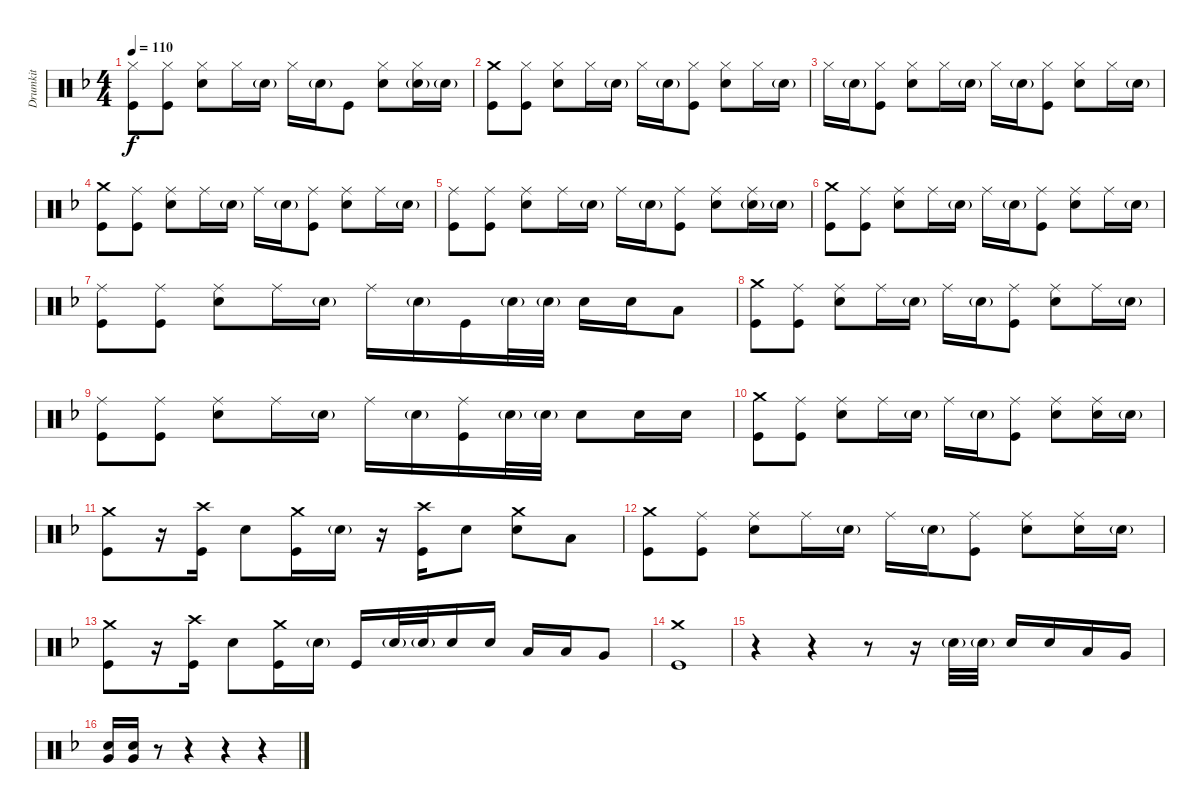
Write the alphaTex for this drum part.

\track ("Drumkit" "Drumkit") {instrument percussion}
\staff {score}
\articulation defaults
\ts (4 4)
\tempo 110
\clef neutral
\ks dminor
("Hi-Hat (closed)" "Kick (hit)").8{dy f} ("Hi-Hat (closed)" "Kick (hit)").8 ("Snare (hit) 2" "Hi-Hat (closed)").8 "Hi-Hat (closed)".16 "Snare (hit) 2"{g}.16 "Hi-Hat (closed)".16 "Snare (hit) 2"{g}.16 "Kick (hit)".8 ("Snare (hit) 2" "Hi-Hat (closed)").8 ("Hi-Hat (closed)" "Snare (hit) 2"{g}).16 "Snare (hit) 2"{g}.16 |
("Kick (hit)" "Crash medium (hit)").8 ("Hi-Hat (closed)" "Kick (hit)").8 ("Snare (hit) 2" "Hi-Hat (closed)").8 "Hi-Hat (closed)".16 "Snare (hit) 2"{g}.16 "Hi-Hat (closed)".16 "Snare (hit) 2"{g}.16 ("Kick (hit)" "Hi-Hat (closed)").8 ("Snare (hit) 2" "Hi-Hat (closed)").8 "Hi-Hat (closed)".16 "Snare (hit) 2"{g}.16 |
"Hi-Hat (closed)".16 "Snare (hit) 2"{g}.16 ("Kick (hit)" "Hi-Hat (closed)").8 ("Snare (hit) 2" "Hi-Hat (closed)").8 "Hi-Hat (closed)".16 "Snare (hit) 2"{g}.16 "Hi-Hat (closed)".16 "Snare (hit) 2"{g}.16 ("Kick (hit)" "Hi-Hat (closed)").8 ("Snare (hit) 2" "Hi-Hat (closed)").8 "Hi-Hat (closed)".16 "Snare (hit) 2"{g}.16 |
("Kick (hit)" "Crash medium (hit)").8 ("Kick (hit)" "Ride (middle)").8 ("Snare (hit) 2" "Ride (middle)").8 "Ride (middle)".16 "Snare (hit) 2"{g}.16 "Ride (middle)".16 "Snare (hit) 2"{g}.16 ("Kick (hit)" "Ride (middle)").8 ("Snare (hit) 2" "Ride (middle)").8 "Ride (middle)".16 "Snare (hit) 2"{g}.16 |
("Kick (hit)" "Ride (middle)").8 ("Kick (hit)" "Ride (middle)").8 ("Snare (hit) 2" "Ride (middle)").8 "Ride (middle)".16 "Snare (hit) 2"{g}.16 "Ride (middle)".16 "Snare (hit) 2"{g}.16 ("Kick (hit)" "Ride (middle)").8 ("Snare (hit) 2" "Ride (middle)").8 ("Snare (hit) 2"{g} "Ride (middle)").16 "Snare (hit) 2"{g}.16 |
("Kick (hit)" "Crash medium (hit)").8 ("Kick (hit)" "Ride (middle)").8 ("Snare (hit) 2" "Ride (middle)").8 "Ride (middle)".16 "Snare (hit) 2"{g}.16 "Ride (middle)".16 "Snare (hit) 2"{g}.16 ("Kick (hit)" "Ride (middle)").8 ("Snare (hit) 2" "Ride (middle)").8 "Ride (middle)".16 "Snare (hit) 2"{g}.16 |
("Kick (hit)" "Ride (middle)").8 ("Kick (hit)" "Ride (middle)").8 ("Snare (hit) 2" "Ride (middle)").8 "Ride (middle)".16 "Snare (hit) 2"{g}.16 "Ride (middle)".16 "Snare (hit) 2"{g}.16 "Kick (hit)".16 "Snare (hit) 2"{g}.32 "Snare (hit) 2"{g}.32 "Snare (hit) 2".16 "Snare (hit) 2".16 "Low Tom (hit)".8 |
("Kick (hit)" "Crash medium (hit)").8 ("Kick (hit)" "Ride (middle)").8 ("Snare (hit) 2" "Ride (middle)").8 "Ride (middle)".16 "Snare (hit) 2"{g}.16 "Ride (middle)".16 "Snare (hit) 2"{g}.16 ("Kick (hit)" "Ride (middle)").8 ("Snare (hit) 2" "Ride (middle)").8 "Ride (middle)".16 "Snare (hit) 2"{g}.16 |
("Kick (hit)" "Ride (middle)").8 ("Kick (hit)" "Ride (middle)").8 ("Snare (hit) 2" "Ride (middle)").8 "Ride (middle)".16 "Snare (hit) 2"{g}.16 "Ride (middle)".16 "Snare (hit) 2"{g}.16 ("Kick (hit)" "Ride (middle)").16 "Snare (hit) 2"{g}.32 "Snare (hit) 2"{g}.32 "Snare (hit) 2".8 "Snare (hit) 2".16 "Snare (hit) 2".16 |
("Kick (hit)" "Crash medium (hit)").8 ("Kick (hit)" "Ride (middle)").8 ("Snare (hit) 2" "Ride (middle)").8 "Ride (middle)".16 "Snare (hit) 2"{g}.16 "Ride (middle)".16 "Snare (hit) 2"{g}.16 ("Kick (hit)" "Ride (middle)").8 ("Snare (hit) 2" "Ride (middle)").8 ("Ride (middle)" "Snare (hit) 2").16 "Snare (hit) 2"{g}.16 |
("Kick (hit)" "Crash medium (hit)").8 r.16 ("Kick (hit)" "Crash high (hit)").16 "Snare (hit) 2".8 ("Kick (hit)" "Crash medium (hit)").16 "Snare (hit) 2"{g}.16 r.16 ("Kick (hit)" "Crash high (hit)").16 "Snare (hit) 2".8 ("Snare (hit) 2" "Crash medium (hit)").8 "Low Tom (hit)".8 |
("Kick (hit)" "Crash medium (hit)").8 ("Kick (hit)" "Ride (middle)").8 ("Snare (hit) 2" "Ride (middle)").8 "Ride (middle)".16 "Snare (hit) 2"{g}.16 "Ride (middle)".16 "Snare (hit) 2"{g}.16 ("Kick (hit)" "Ride (middle)").8 ("Snare (hit) 2" "Ride (middle)").8 ("Ride (middle)" "Snare (hit) 2").16 "Snare (hit) 2"{g}.16 |
("Kick (hit)" "Crash medium (hit)").8 r.16 ("Kick (hit)" "Crash high (hit)").16 "Snare (hit) 2".8 ("Kick (hit)" "Crash medium (hit)").16 "Snare (hit) 2"{g}.16 "Kick (hit)".16 "Snare (hit) 2"{g}.32 "Snare (hit) 2"{g}.32 "Snare (hit) 2".16 "Snare (hit) 2".16 "Low Tom (hit)".16 "Low Tom (hit)".16 "Very Low Tom (hit)".8 |
("Kick (hit)" "Crash medium (hit)").1 |
r.4 r.4 r.8 r.16 "Snare (hit) 2"{g}.32 "Snare (hit) 2"{g}.32 "Snare (hit) 2".16 "Snare (hit) 2".16 "Low Tom (hit)".16 "Very Low Tom (hit)".16 |
("Snare (hit) 2" "Very Low Tom (hit)").16 ("Snare (hit) 2" "Very Low Tom (hit)").16 r.8 r.4 r.4 r.4
